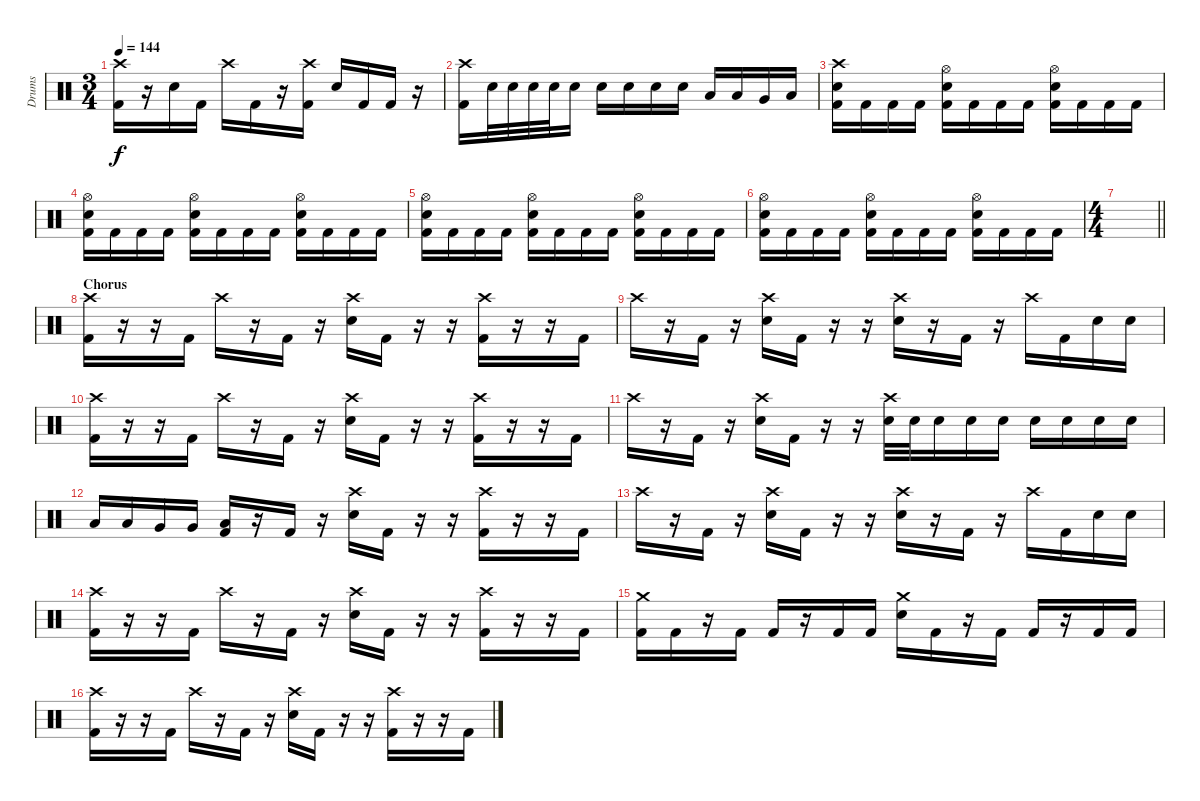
\track ("Drums" "Drums") {instrument percussion}
\staff {score}
\articulation defaults
\ts (3 4)
\tempo 144
\clef neutral
\ks c
("Crash high (hit)" "Kick (hit) 2").16{dy f} r.16 "Snare (hit) 2".16 "Kick (hit) 2".16 "Crash high (hit)".16 "Kick (hit) 2".16 r.16 ("Crash high (hit)" "Kick (hit) 2").16 "Snare (hit) 2".16 "Kick (hit) 2".16 "Kick (hit) 2".16 r.16 |
("Crash high (hit)" "Kick (hit) 2").16 "Snare (hit) 2".32 "Snare (hit) 2".32 "Snare (hit) 2".32 "Snare (hit) 2".32 "Snare (hit) 2".16 "Snare (hit) 2".16 "Snare (hit) 2".16 "Snare (hit) 2".16 "Snare (hit) 2".16 "Low Tom (hit)".16 "Low Tom (hit)".16 "Very Low Tom (hit)".16 "Low Floor Tom (hit)".16 |
("Crash high (hit)" "Snare (hit) 2" "Kick (hit) 2").16 "Kick (hit) 2".16 "Kick (hit) 2".16 "Kick (hit) 2".16 ("Hi-Hat (open)" "Snare (hit) 2" "Kick (hit) 2").16 "Kick (hit) 2".16 "Kick (hit) 2".16 "Kick (hit) 2".16 ("Hi-Hat (open)" "Snare (hit) 2" "Kick (hit) 2").16 "Kick (hit) 2".16 "Kick (hit) 2".16 "Kick (hit) 2".16 |
("Hi-Hat (open)" "Snare (hit) 2" "Kick (hit) 2").16 "Kick (hit) 2".16 "Kick (hit) 2".16 "Kick (hit) 2".16 ("Hi-Hat (open)" "Snare (hit) 2" "Kick (hit) 2").16 "Kick (hit) 2".16 "Kick (hit) 2".16 "Kick (hit) 2".16 ("Hi-Hat (open)" "Snare (hit) 2" "Kick (hit) 2").16 "Kick (hit) 2".16 "Kick (hit) 2".16 "Kick (hit) 2".16 |
("Hi-Hat (open)" "Snare (hit) 2" "Kick (hit) 2").16 "Kick (hit) 2".16 "Kick (hit) 2".16 "Kick (hit) 2".16 ("Hi-Hat (open)" "Snare (hit) 2" "Kick (hit) 2").16 "Kick (hit) 2".16 "Kick (hit) 2".16 "Kick (hit) 2".16 ("Hi-Hat (open)" "Snare (hit) 2" "Kick (hit) 2").16 "Kick (hit) 2".16 "Kick (hit) 2".16 "Kick (hit) 2".16 |
("Hi-Hat (open)" "Snare (hit) 2" "Kick (hit) 2").16 "Kick (hit) 2".16 "Kick (hit) 2".16 "Kick (hit) 2".16 ("Hi-Hat (open)" "Snare (hit) 2" "Kick (hit) 2").16 "Kick (hit) 2".16 "Kick (hit) 2".16 "Kick (hit) 2".16 ("Hi-Hat (open)" "Snare (hit) 2" "Kick (hit) 2").16 "Kick (hit) 2".16 "Kick (hit) 2".16 "Kick (hit) 2".16 |
\ts (4 4)
\barLineRight lightlight
|
\section ("" "Chorus")
("Crash high (hit)" "Kick (hit) 2").16 r.16 r.16 "Kick (hit) 2".16 "Crash high (hit)".16 r.16 "Kick (hit) 2".16 r.16 ("Crash high (hit)" "Snare (hit) 2").16 "Kick (hit) 2".16 r.16 r.16 ("Crash high (hit)" "Kick (hit) 2").16 r.16 r.16 "Kick (hit) 2".16 |
"Crash high (hit)".16 r.16 "Kick (hit) 2".16 r.16 ("Crash high (hit)" "Snare (hit) 2").16 "Kick (hit) 2".16 r.16 r.16 ("Crash high (hit)" "Snare (hit) 2").16 r.16 "Kick (hit) 2".16 r.16 "Crash high (hit)".16 "Kick (hit) 2".16 "Snare (hit) 2".16 "Snare (hit) 2".16 |
("Crash high (hit)" "Kick (hit) 2").16 r.16 r.16 "Kick (hit) 2".16 "Crash high (hit)".16 r.16 "Kick (hit) 2".16 r.16 ("Crash high (hit)" "Snare (hit) 2").16 "Kick (hit) 2".16 r.16 r.16 ("Crash high (hit)" "Kick (hit) 2").16 r.16 r.16 "Kick (hit) 2".16 |
"Crash high (hit)".16 r.16 "Kick (hit) 2".16 r.16 ("Crash high (hit)" "Snare (hit) 2").16 "Kick (hit) 2".16 r.16 r.16 ("Crash high (hit)" "Snare (hit) 2").32 "Snare (hit) 2".32 "Snare (hit) 2".16 "Snare (hit) 2".16 "Snare (hit) 2".16 "Snare (hit) 2".16 "Snare (hit) 2".16 "Snare (hit) 2".16 "Snare (hit) 2".16 |
"Low Tom (hit)".16 "Low Tom (hit)".16 "Very Low Tom (hit)".16 "Very Low Tom (hit)".16 ("Low Floor Tom (hit)" "Kick (hit) 2").16 r.16 "Kick (hit) 2".16 r.16 ("Crash high (hit)" "Snare (hit) 2").16 "Kick (hit) 2".16 r.16 r.16 ("Crash high (hit)" "Kick (hit) 2").16 r.16 r.16 "Kick (hit) 2".16 |
"Crash high (hit)".16 r.16 "Kick (hit) 2".16 r.16 ("Crash high (hit)" "Snare (hit) 2").16 "Kick (hit) 2".16 r.16 r.16 ("Crash high (hit)" "Snare (hit) 2").16 r.16 "Kick (hit) 2".16 r.16 "Crash high (hit)".16 "Kick (hit) 2".16 "Snare (hit) 2".16 "Snare (hit) 2".16 |
("Crash high (hit)" "Kick (hit) 2").16 r.16 r.16 "Kick (hit) 2".16 "Crash high (hit)".16 r.16 "Kick (hit) 2".16 r.16 ("Crash high (hit)" "Snare (hit) 2").16 "Kick (hit) 2".16 r.16 r.16 ("Crash high (hit)" "Kick (hit) 2").16 r.16 r.16 "Kick (hit) 2".16 |
("Crash medium (hit)" "Kick (hit) 2").16 "Kick (hit) 2".16 r.16 "Kick (hit) 2".16 "Kick (hit) 2".16 r.16 "Kick (hit) 2".16 "Kick (hit) 2".16 ("Crash medium (hit)" "Snare (hit) 2").16 "Kick (hit) 2".16 r.16 "Kick (hit) 2".16 "Kick (hit) 2".16 r.16 "Kick (hit) 2".16 "Kick (hit) 2".16 |
("Crash high (hit)" "Kick (hit) 2").16 r.16 r.16 "Kick (hit) 2".16 "Crash high (hit)".16 r.16 "Kick (hit) 2".16 r.16 ("Crash high (hit)" "Snare (hit) 2").16 "Kick (hit) 2".16 r.16 r.16 ("Crash high (hit)" "Kick (hit) 2").16 r.16 r.16 "Kick (hit) 2".16
